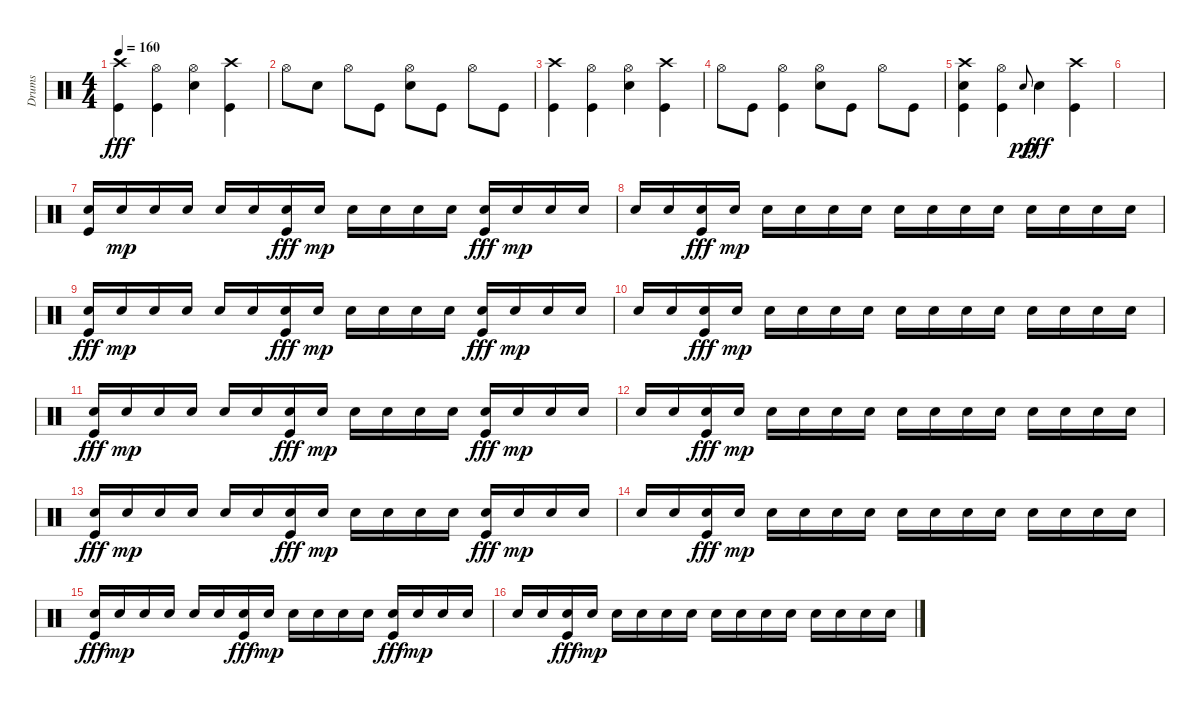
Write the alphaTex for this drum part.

\track ("Drums" "Drums") {instrument percussion}
\staff {score}
\articulation defaults
\ts (4 4)
\tempo 160
\clef neutral
\ks c
("Crash high (hit)" "Kick (hit)").4{dy fff} ("Hi-Hat (open)" "Kick (hit)").4 ("Hi-Hat (open)" "Snare (hit) 2").4 ("Crash high (hit)" "Kick (hit)").4 |
"Hi-Hat (open)".8 "Snare (hit) 2".8 "Hi-Hat (open)".8 "Kick (hit)".8 ("Hi-Hat (open)" "Snare (hit) 2").8 "Kick (hit)".8 "Hi-Hat (open)".8 "Kick (hit)".8 |
("Crash high (hit)" "Kick (hit)").4 ("Hi-Hat (open)" "Kick (hit)").4 ("Hi-Hat (open)" "Snare (hit) 2").4 ("Crash high (hit)" "Kick (hit)").4 |
"Hi-Hat (open)".8 "Kick (hit)".8 ("Hi-Hat (open)" "Kick (hit)").4 ("Hi-Hat (open)" "Snare (hit) 2").8 "Kick (hit)".8 "Hi-Hat (open)".8 "Kick (hit)".8 |
("Crash high (hit)" "Snare (hit) 2" "Kick (hit)").4 ("Hi-Hat (open)" "Kick (hit)").4 "Snare (hit) 2".8{gr onbeat dy pp} "Snare (hit) 2".4{dy fff} ("Crash high (hit)" "Kick (hit)").4 |
|
("Snare (hit) 2" "Kick (hit)").16 "Snare (hit) 2".16{dy mp} "Snare (hit) 2".16 "Snare (hit) 2".16 "Snare (hit) 2".16 "Snare (hit) 2".16 ("Snare (hit) 2" "Kick (hit)").16{dy fff} "Snare (hit) 2".16{dy mp} "Snare (hit) 2".16 "Snare (hit) 2".16 "Snare (hit) 2".16 "Snare (hit) 2".16 ("Snare (hit) 2" "Kick (hit)").16{dy fff} "Snare (hit) 2".16{dy mp} "Snare (hit) 2".16 "Snare (hit) 2".16 |
"Snare (hit) 2".16 "Snare (hit) 2".16 ("Snare (hit) 2" "Kick (hit)").16{dy fff} "Snare (hit) 2".16{dy mp} "Snare (hit) 2".16 "Snare (hit) 2".16 "Snare (hit) 2".16 "Snare (hit) 2".16 "Snare (hit) 2".16 "Snare (hit) 2".16 "Snare (hit) 2".16 "Snare (hit) 2".16 "Snare (hit) 2".16 "Snare (hit) 2".16 "Snare (hit) 2".16 "Snare (hit) 2".16 |
("Snare (hit) 2" "Kick (hit)").16{dy fff} "Snare (hit) 2".16{dy mp} "Snare (hit) 2".16 "Snare (hit) 2".16 "Snare (hit) 2".16 "Snare (hit) 2".16 ("Snare (hit) 2" "Kick (hit)").16{dy fff} "Snare (hit) 2".16{dy mp} "Snare (hit) 2".16 "Snare (hit) 2".16 "Snare (hit) 2".16 "Snare (hit) 2".16 ("Snare (hit) 2" "Kick (hit)").16{dy fff} "Snare (hit) 2".16{dy mp} "Snare (hit) 2".16 "Snare (hit) 2".16 |
"Snare (hit) 2".16 "Snare (hit) 2".16 ("Snare (hit) 2" "Kick (hit)").16{dy fff} "Snare (hit) 2".16{dy mp} "Snare (hit) 2".16 "Snare (hit) 2".16 "Snare (hit) 2".16 "Snare (hit) 2".16 "Snare (hit) 2".16 "Snare (hit) 2".16 "Snare (hit) 2".16 "Snare (hit) 2".16 "Snare (hit) 2".16 "Snare (hit) 2".16 "Snare (hit) 2".16 "Snare (hit) 2".16 |
("Snare (hit) 2" "Kick (hit)").16{dy fff} "Snare (hit) 2".16{dy mp} "Snare (hit) 2".16 "Snare (hit) 2".16 "Snare (hit) 2".16 "Snare (hit) 2".16 ("Snare (hit) 2" "Kick (hit)").16{dy fff} "Snare (hit) 2".16{dy mp} "Snare (hit) 2".16 "Snare (hit) 2".16 "Snare (hit) 2".16 "Snare (hit) 2".16 ("Snare (hit) 2" "Kick (hit)").16{dy fff} "Snare (hit) 2".16{dy mp} "Snare (hit) 2".16 "Snare (hit) 2".16 |
"Snare (hit) 2".16 "Snare (hit) 2".16 ("Snare (hit) 2" "Kick (hit)").16{dy fff} "Snare (hit) 2".16{dy mp} "Snare (hit) 2".16 "Snare (hit) 2".16 "Snare (hit) 2".16 "Snare (hit) 2".16 "Snare (hit) 2".16 "Snare (hit) 2".16 "Snare (hit) 2".16 "Snare (hit) 2".16 "Snare (hit) 2".16 "Snare (hit) 2".16 "Snare (hit) 2".16 "Snare (hit) 2".16 |
("Snare (hit) 2" "Kick (hit)").16{dy fff} "Snare (hit) 2".16{dy mp} "Snare (hit) 2".16 "Snare (hit) 2".16 "Snare (hit) 2".16 "Snare (hit) 2".16 ("Snare (hit) 2" "Kick (hit)").16{dy fff} "Snare (hit) 2".16{dy mp} "Snare (hit) 2".16 "Snare (hit) 2".16 "Snare (hit) 2".16 "Snare (hit) 2".16 ("Snare (hit) 2" "Kick (hit)").16{dy fff} "Snare (hit) 2".16{dy mp} "Snare (hit) 2".16 "Snare (hit) 2".16 |
"Snare (hit) 2".16 "Snare (hit) 2".16 ("Snare (hit) 2" "Kick (hit)").16{dy fff} "Snare (hit) 2".16{dy mp} "Snare (hit) 2".16 "Snare (hit) 2".16 "Snare (hit) 2".16 "Snare (hit) 2".16 "Snare (hit) 2".16 "Snare (hit) 2".16 "Snare (hit) 2".16 "Snare (hit) 2".16 "Snare (hit) 2".16 "Snare (hit) 2".16 "Snare (hit) 2".16 "Snare (hit) 2".16 |
("Snare (hit) 2" "Kick (hit)").16{dy fff} "Snare (hit) 2".16{dy mp} "Snare (hit) 2".16 "Snare (hit) 2".16 "Snare (hit) 2".16 "Snare (hit) 2".16 ("Snare (hit) 2" "Kick (hit)").16{dy fff} "Snare (hit) 2".16{dy mp} "Snare (hit) 2".16 "Snare (hit) 2".16 "Snare (hit) 2".16 "Snare (hit) 2".16 ("Snare (hit) 2" "Kick (hit)").16{dy fff} "Snare (hit) 2".16{dy mp} "Snare (hit) 2".16 "Snare (hit) 2".16 |
"Snare (hit) 2".16 "Snare (hit) 2".16 ("Snare (hit) 2" "Kick (hit)").16{dy fff} "Snare (hit) 2".16{dy mp} "Snare (hit) 2".16 "Snare (hit) 2".16 "Snare (hit) 2".16 "Snare (hit) 2".16 "Snare (hit) 2".16 "Snare (hit) 2".16 "Snare (hit) 2".16 "Snare (hit) 2".16 "Snare (hit) 2".16 "Snare (hit) 2".16 "Snare (hit) 2".16 "Snare (hit) 2".16
